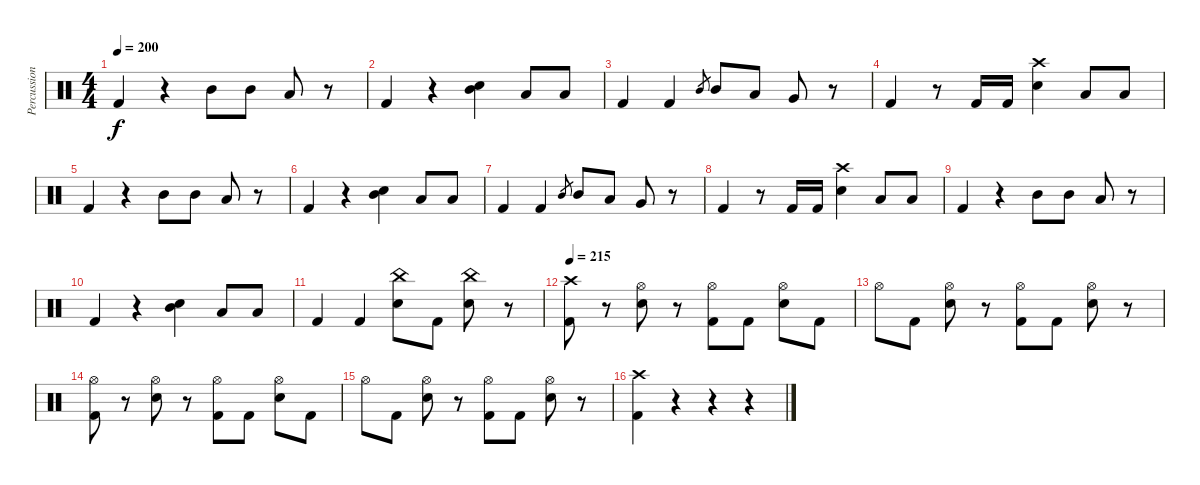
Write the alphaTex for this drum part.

\track ("Percussion" "Percussion") {instrument percussion}
\staff {score}
\articulation defaults
\ts (4 4)
\tempo 200
\clef neutral
\ks c "Kick (hit) 2".4{dy f}
r.4 "Mid Tom (hit)".8 "Mid Tom (hit)".8 "Low Tom (hit)".8 r.8 |
"Kick (hit) 2".4 r.4 ("Mid Tom (hit)" "Snare (hit) 2").4 "Low Tom (hit)".8 "Low Tom (hit)".8 |
"Kick (hit) 2".4 "Kick (hit) 2".4 "Mid Tom (hit)".8{gr} "Mid Tom (hit)".8 "Low Tom (hit)".8 "Very Low Tom (hit)".8 r.8 |
"Kick (hit) 2".4 r.8 "Kick (hit) 2".16 "Kick (hit) 2".16 ("Crash high (hit)" "Snare (hit) 2").4 "Low Tom (hit)".8 "Low Tom (hit)".8 |
"Kick (hit) 2".4 r.4 "Mid Tom (hit)".8 "Mid Tom (hit)".8 "Low Tom (hit)".8 r.8 |
"Kick (hit) 2".4 r.4 ("Mid Tom (hit)" "Snare (hit) 2").4 "Low Tom (hit)".8 "Low Tom (hit)".8 |
"Kick (hit) 2".4 "Kick (hit) 2".4 "Mid Tom (hit)".8{gr} "Mid Tom (hit)".8 "Low Tom (hit)".8 "Very Low Tom (hit)".8 r.8 |
"Kick (hit) 2".4 r.8 "Kick (hit) 2".16 "Kick (hit) 2".16 ("Crash high (hit)" "Snare (hit) 2").4 "Low Tom (hit)".8 "Low Tom (hit)".8 |
"Kick (hit) 2".4 r.4 "Mid Tom (hit)".8 "Mid Tom (hit)".8 "Low Tom (hit)".8 r.8 |
"Kick (hit) 2".4 r.4 ("Mid Tom (hit)" "Snare (hit) 2").4 "Low Tom (hit)".8 "Low Tom (hit)".8 |
"Kick (hit) 2".4 "Kick (hit) 2".4 ("China (hit)" "Snare (hit) 2").8 "Kick (hit) 2".8 ("China (hit)" "Snare (hit) 2").8 r.8 |
\tempo 215
("Crash high (hit)" "Kick (hit) 2").8 r.8 ("Hi-Hat (open)" "Snare (hit) 2").8 r.8 ("Hi-Hat (open)" "Kick (hit) 2").8 "Kick (hit) 2".8 ("Hi-Hat (open)" "Snare (hit) 2").8 "Kick (hit) 2".8 |
"Hi-Hat (open)".8 "Kick (hit) 2".8 ("Hi-Hat (open)" "Snare (hit) 2").8 r.8 ("Hi-Hat (open)" "Kick (hit) 2").8 "Kick (hit) 2".8 ("Hi-Hat (open)" "Snare (hit) 2").8 r.8 |
("Hi-Hat (open)" "Kick (hit) 2").8 r.8 ("Hi-Hat (open)" "Snare (hit) 2").8 r.8 ("Hi-Hat (open)" "Kick (hit) 2").8 "Kick (hit) 2".8 ("Hi-Hat (open)" "Snare (hit) 2").8 "Kick (hit) 2".8 |
"Hi-Hat (open)".8 "Kick (hit) 2".8 ("Hi-Hat (open)" "Snare (hit) 2").8 r.8 ("Hi-Hat (open)" "Kick (hit) 2").8 "Kick (hit) 2".8 ("Hi-Hat (open)" "Snare (hit) 2").8 r.8 |
("Crash high (hit)" "Kick (hit) 2").4 r.4 r.4 r.4
